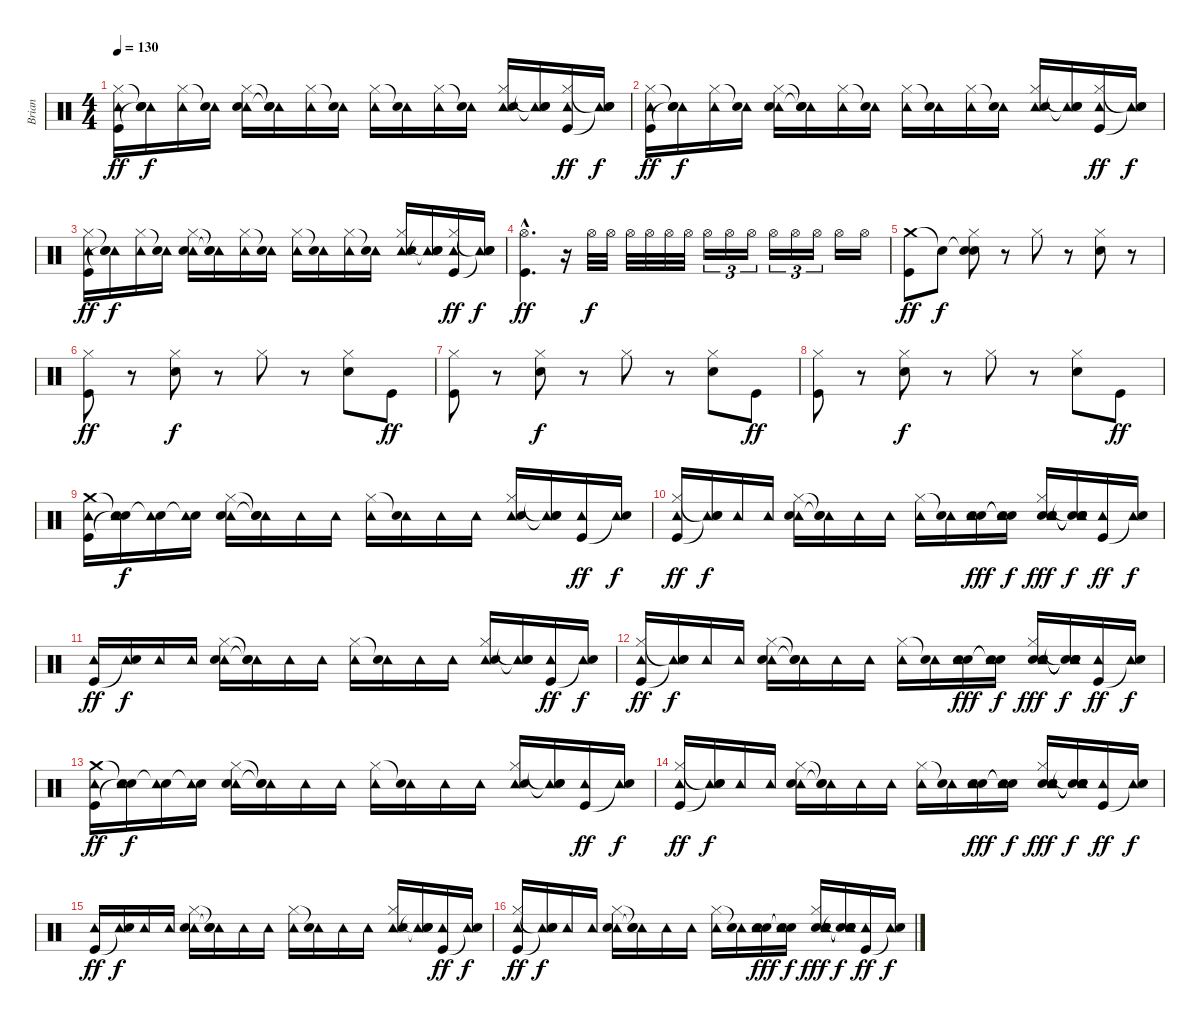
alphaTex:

\track ("Brian" "Brian") {instrument percussion}
\staff {score}
\articulation defaults
\ts (4 4)
\tempo 130
\clef neutral
\ks c
("Tambourine (hit)" "Hi-Hat (closed)" "Kick (hit)").16{dy ff} ("Tambourine (hit)" "Snare (hit)"{t} "Snare (hit)"{t}).16{dy f} ("Tambourine (hit)" "Hi-Hat (closed)").16 ("Tambourine (hit)" "Snare (hit)"{t}).16 ("Tambourine (hit)" "Hi-Hat (closed)" "Electric Snare (hit)").16 ("Tambourine (hit)" "Snare (hit)"{t} "Snare (hit)"{t}).16 ("Tambourine (hit)" "Hi-Hat (closed)").16 ("Tambourine (hit)" "Snare (hit)"{t}).16 ("Tambourine (hit)" "Hi-Hat (closed)").16 ("Tambourine (hit)" "Snare (hit)"{t}).16 ("Tambourine (hit)" "Hi-Hat (closed)").16 ("Tambourine (hit)" "Snare (hit)"{t}).16 ("Tambourine (hit)" "Hi-Hat (closed)" "Electric Snare (hit)").16 ("Tambourine (hit)" "Snare (hit)"{t} "Snare (hit)"{t}).16 ("Tambourine (hit)" "Hi-Hat (closed)" "Kick (hit)").16{dy ff} ("Tambourine (hit)" "Snare (hit)"{t} "Snare (hit)"{t}).16{dy f} |
("Tambourine (hit)" "Hi-Hat (closed)" "Kick (hit)").16{dy ff} ("Tambourine (hit)" "Snare (hit)"{t} "Snare (hit)"{t}).16{dy f} ("Tambourine (hit)" "Hi-Hat (closed)").16 ("Tambourine (hit)" "Snare (hit)"{t}).16 ("Tambourine (hit)" "Hi-Hat (closed)" "Electric Snare (hit)").16 ("Tambourine (hit)" "Snare (hit)"{t} "Snare (hit)"{t}).16 ("Tambourine (hit)" "Hi-Hat (closed)").16 ("Tambourine (hit)" "Snare (hit)"{t}).16 ("Tambourine (hit)" "Hi-Hat (closed)").16 ("Tambourine (hit)" "Snare (hit)"{t}).16 ("Tambourine (hit)" "Hi-Hat (closed)").16 ("Tambourine (hit)" "Snare (hit)"{t}).16 ("Tambourine (hit)" "Hi-Hat (closed)" "Electric Snare (hit)").16 ("Tambourine (hit)" "Snare (hit)"{t} "Snare (hit)"{t}).16 ("Tambourine (hit)" "Hi-Hat (closed)" "Kick (hit)").16{dy ff} ("Tambourine (hit)" "Snare (hit)"{t} "Snare (hit)"{t}).16{dy f} |
("Tambourine (hit)" "Hi-Hat (closed)" "Kick (hit)").16{dy ff} ("Tambourine (hit)" "Snare (hit)"{t} "Snare (hit)"{t}).16{dy f} ("Tambourine (hit)" "Hi-Hat (closed)").16 ("Tambourine (hit)" "Snare (hit)"{t}).16 ("Tambourine (hit)" "Hi-Hat (closed)" "Electric Snare (hit)").16 ("Tambourine (hit)" "Snare (hit)"{t} "Snare (hit)"{t}).16 ("Tambourine (hit)" "Hi-Hat (closed)").16 ("Tambourine (hit)" "Snare (hit)"{t}).16 ("Tambourine (hit)" "Hi-Hat (closed)").16 ("Tambourine (hit)" "Snare (hit)"{t}).16 ("Tambourine (hit)" "Hi-Hat (closed)").16 ("Tambourine (hit)" "Snare (hit)"{t}).16 ("Tambourine (hit)" "Hi-Hat (closed)" "Electric Snare (hit)").16 ("Tambourine (hit)" "Snare (hit)"{t} "Snare (hit)"{t}).16 ("Tambourine (hit)" "Hi-Hat (closed)" "Kick (hit)").16{dy ff} ("Tambourine (hit)" "Snare (hit)"{t} "Snare (hit)"{t}).16{dy f} |
("Hi-Hat (open)"{hac} "Kick (hit)"{hac}).4{d dy ff} r.16 "Hi-Hat (open)".32{dy f} "Hi-Hat (open)".32 "Hi-Hat (open)".32 "Hi-Hat (open)".32 "Hi-Hat (open)".32 "Hi-Hat (open)".32 "Hi-Hat (open)".16{tu (3 2)} "Hi-Hat (open)".16{tu (3 2)} "Hi-Hat (open)".16{tu (3 2)} "Hi-Hat (open)".16{tu (3 2)} "Hi-Hat (open)".16{tu (3 2)} "Hi-Hat (open)".16{tu (3 2)} "Hi-Hat (open)".16 "Hi-Hat (open)".16 |
("Crash medium (hit)" "Kick (hit)").8{dy ff} "Snare (hit)"{t}.8{dy f} ("Snare (hit)"{t} "Hi-Hat (closed)" "Electric Snare (hit)").8 r.8 "Hi-Hat (closed)".8 r.8 ("Hi-Hat (closed)" "Electric Snare (hit)").8 r.8 |
("Hi-Hat (closed)" "Kick (hit)").8{dy ff} r.8 ("Hi-Hat (closed)" "Electric Snare (hit)").8{dy f} r.8 "Hi-Hat (closed)".8 r.8 ("Hi-Hat (closed)" "Electric Snare (hit)").8 "Kick (hit)".8{dy ff} |
("Hi-Hat (closed)" "Kick (hit)").8 r.8 ("Hi-Hat (closed)" "Electric Snare (hit)").8{dy f} r.8 "Hi-Hat (closed)".8 r.8 ("Hi-Hat (closed)" "Electric Snare (hit)").8 "Kick (hit)".8{dy ff} |
("Hi-Hat (closed)" "Kick (hit)").8 r.8 ("Hi-Hat (closed)" "Electric Snare (hit)").8{dy f} r.8 "Hi-Hat (closed)".8 r.8 ("Hi-Hat (closed)" "Electric Snare (hit)").8 "Kick (hit)".8{dy ff} |
("Crash medium (hit)" "Tambourine (hit)" "Kick (hit)").16 ("Snare (hit)"{t} "Tambourine (hit)" "Snare (hit)"{t}).16{dy f} ("Snare (hit)"{t} "Tambourine (hit)").16 ("Snare (hit)"{t} "Tambourine (hit)").16 ("Tambourine (hit)" "Hi-Hat (closed)" "Electric Snare (hit)").16 ("Tambourine (hit)" "Snare (hit)"{t} "Snare (hit)"{t}).16 "Tambourine (hit)".16 "Tambourine (hit)".16 ("Tambourine (hit)" "Hi-Hat (closed)").16 ("Tambourine (hit)" "Snare (hit)"{t}).16 "Tambourine (hit)".16 "Tambourine (hit)".16 ("Tambourine (hit)" "Hi-Hat (closed)" "Electric Snare (hit)").16 ("Tambourine (hit)" "Snare (hit)"{t} "Snare (hit)"{t}).16 ("Tambourine (hit)" "Kick (hit)").16{dy ff} ("Tambourine (hit)" "Snare (hit)"{t}).16{dy f} |
("Tambourine (hit)" "Hi-Hat (closed)" "Kick (hit)").16{dy ff} ("Tambourine (hit)" "Snare (hit)"{t} "Snare (hit)"{t}).16{dy f} "Tambourine (hit)".16 "Tambourine (hit)".16 ("Tambourine (hit)" "Hi-Hat (closed)" "Electric Snare (hit)").16 ("Tambourine (hit)" "Snare (hit)"{t} "Snare (hit)"{t}).16 "Tambourine (hit)".16 "Tambourine (hit)".16 ("Tambourine (hit)" "Hi-Hat (closed)").16 ("Tambourine (hit)" "Snare (hit)"{t}).16 ("Hand Clap (hit)" "Tambourine (hit)" "Hand Clap (hit)").16{dy fff} ("Snare (hit)"{t} "Tambourine (hit)" "Snare (hit)"{t}).16{dy f} ("Hand Clap (hit)" "Tambourine (hit)" "Hi-Hat (closed)" "Hand Clap (hit)" "Electric Snare (hit)").16{dy fff} ("Snare (hit)"{t} "Tambourine (hit)" "Snare (hit)"{t} "Snare (hit)"{t} "Snare (hit)"{t}).16{dy f} ("Tambourine (hit)" "Kick (hit)").16{dy ff} ("Tambourine (hit)" "Snare (hit)"{t}).16{dy f} |
("Tambourine (hit)" "Kick (hit)").16{dy ff} ("Tambourine (hit)" "Snare (hit)"{t}).16{dy f} "Tambourine (hit)".16 "Tambourine (hit)".16 ("Tambourine (hit)" "Hi-Hat (closed)" "Electric Snare (hit)").16 ("Tambourine (hit)" "Snare (hit)"{t} "Snare (hit)"{t}).16 "Tambourine (hit)".16 "Tambourine (hit)".16 ("Tambourine (hit)" "Hi-Hat (closed)").16 ("Tambourine (hit)" "Snare (hit)"{t}).16 "Tambourine (hit)".16 "Tambourine (hit)".16 ("Tambourine (hit)" "Hi-Hat (closed)" "Electric Snare (hit)").16 ("Tambourine (hit)" "Snare (hit)"{t} "Snare (hit)"{t}).16 ("Tambourine (hit)" "Kick (hit)").16{dy ff} ("Tambourine (hit)" "Snare (hit)"{t}).16{dy f} |
("Tambourine (hit)" "Hi-Hat (closed)" "Kick (hit)").16{dy ff} ("Tambourine (hit)" "Snare (hit)"{t} "Snare (hit)"{t}).16{dy f} "Tambourine (hit)".16 "Tambourine (hit)".16 ("Tambourine (hit)" "Hi-Hat (closed)" "Electric Snare (hit)").16 ("Tambourine (hit)" "Snare (hit)"{t} "Snare (hit)"{t}).16 "Tambourine (hit)".16 "Tambourine (hit)".16 ("Tambourine (hit)" "Hi-Hat (closed)").16 ("Tambourine (hit)" "Snare (hit)"{t}).16 ("Hand Clap (hit)" "Tambourine (hit)" "Hand Clap (hit)").16{dy fff} ("Snare (hit)"{t} "Tambourine (hit)" "Snare (hit)"{t}).16{dy f} ("Hand Clap (hit)" "Tambourine (hit)" "Hi-Hat (closed)" "Hand Clap (hit)" "Electric Snare (hit)").16{dy fff} ("Snare (hit)"{t} "Tambourine (hit)" "Snare (hit)"{t} "Snare (hit)"{t} "Snare (hit)"{t}).16{dy f} ("Tambourine (hit)" "Kick (hit)").16{dy ff} ("Tambourine (hit)" "Snare (hit)"{t}).16{dy f} |
("Crash medium (hit)" "Tambourine (hit)" "Kick (hit)").16{dy ff} ("Snare (hit)"{t} "Tambourine (hit)" "Snare (hit)"{t}).16{dy f} ("Snare (hit)"{t} "Tambourine (hit)").16 ("Snare (hit)"{t} "Tambourine (hit)").16 ("Tambourine (hit)" "Hi-Hat (closed)" "Electric Snare (hit)").16 ("Tambourine (hit)" "Snare (hit)"{t} "Snare (hit)"{t}).16 "Tambourine (hit)".16 "Tambourine (hit)".16 ("Tambourine (hit)" "Hi-Hat (closed)").16 ("Tambourine (hit)" "Snare (hit)"{t}).16 "Tambourine (hit)".16 "Tambourine (hit)".16 ("Tambourine (hit)" "Hi-Hat (closed)" "Electric Snare (hit)").16 ("Tambourine (hit)" "Snare (hit)"{t} "Snare (hit)"{t}).16 ("Tambourine (hit)" "Kick (hit)").16{dy ff} ("Tambourine (hit)" "Snare (hit)"{t}).16{dy f} |
("Tambourine (hit)" "Hi-Hat (closed)" "Kick (hit)").16{dy ff} ("Tambourine (hit)" "Snare (hit)"{t} "Snare (hit)"{t}).16{dy f} "Tambourine (hit)".16 "Tambourine (hit)".16 ("Tambourine (hit)" "Hi-Hat (closed)" "Electric Snare (hit)").16 ("Tambourine (hit)" "Snare (hit)"{t} "Snare (hit)"{t}).16 "Tambourine (hit)".16 "Tambourine (hit)".16 ("Tambourine (hit)" "Hi-Hat (closed)").16 ("Tambourine (hit)" "Snare (hit)"{t}).16 ("Hand Clap (hit)" "Tambourine (hit)" "Hand Clap (hit)").16{dy fff} ("Snare (hit)"{t} "Tambourine (hit)" "Snare (hit)"{t}).16{dy f} ("Hand Clap (hit)" "Tambourine (hit)" "Hi-Hat (closed)" "Hand Clap (hit)" "Electric Snare (hit)").16{dy fff} ("Snare (hit)"{t} "Tambourine (hit)" "Snare (hit)"{t} "Snare (hit)"{t} "Snare (hit)"{t}).16{dy f} ("Tambourine (hit)" "Kick (hit)").16{dy ff} ("Tambourine (hit)" "Snare (hit)"{t}).16{dy f} |
("Tambourine (hit)" "Kick (hit)").16{dy ff} ("Tambourine (hit)" "Snare (hit)"{t}).16{dy f} "Tambourine (hit)".16 "Tambourine (hit)".16 ("Tambourine (hit)" "Hi-Hat (closed)" "Electric Snare (hit)").16 ("Tambourine (hit)" "Snare (hit)"{t} "Snare (hit)"{t}).16 "Tambourine (hit)".16 "Tambourine (hit)".16 ("Tambourine (hit)" "Hi-Hat (closed)").16 ("Tambourine (hit)" "Snare (hit)"{t}).16 "Tambourine (hit)".16 "Tambourine (hit)".16 ("Tambourine (hit)" "Hi-Hat (closed)" "Electric Snare (hit)").16 ("Tambourine (hit)" "Snare (hit)"{t} "Snare (hit)"{t}).16 ("Tambourine (hit)" "Kick (hit)").16{dy ff} ("Tambourine (hit)" "Snare (hit)"{t}).16{dy f} |
("Tambourine (hit)" "Hi-Hat (closed)" "Kick (hit)").16{dy ff} ("Tambourine (hit)" "Snare (hit)"{t} "Snare (hit)"{t}).16{dy f} "Tambourine (hit)".16 "Tambourine (hit)".16 ("Tambourine (hit)" "Hi-Hat (closed)" "Electric Snare (hit)").16 ("Tambourine (hit)" "Snare (hit)"{t} "Snare (hit)"{t}).16 "Tambourine (hit)".16 "Tambourine (hit)".16 ("Tambourine (hit)" "Hi-Hat (closed)").16 ("Tambourine (hit)" "Snare (hit)"{t}).16 ("Hand Clap (hit)" "Tambourine (hit)" "Hand Clap (hit)").16{dy fff} ("Snare (hit)"{t} "Tambourine (hit)" "Snare (hit)"{t}).16{dy f} ("Hand Clap (hit)" "Tambourine (hit)" "Hi-Hat (closed)" "Hand Clap (hit)" "Electric Snare (hit)").16{dy fff} ("Snare (hit)"{t} "Tambourine (hit)" "Snare (hit)"{t} "Snare (hit)"{t} "Snare (hit)"{t}).16{dy f} ("Tambourine (hit)" "Kick (hit)").16{dy ff} ("Tambourine (hit)" "Snare (hit)"{t}).16{dy f}
